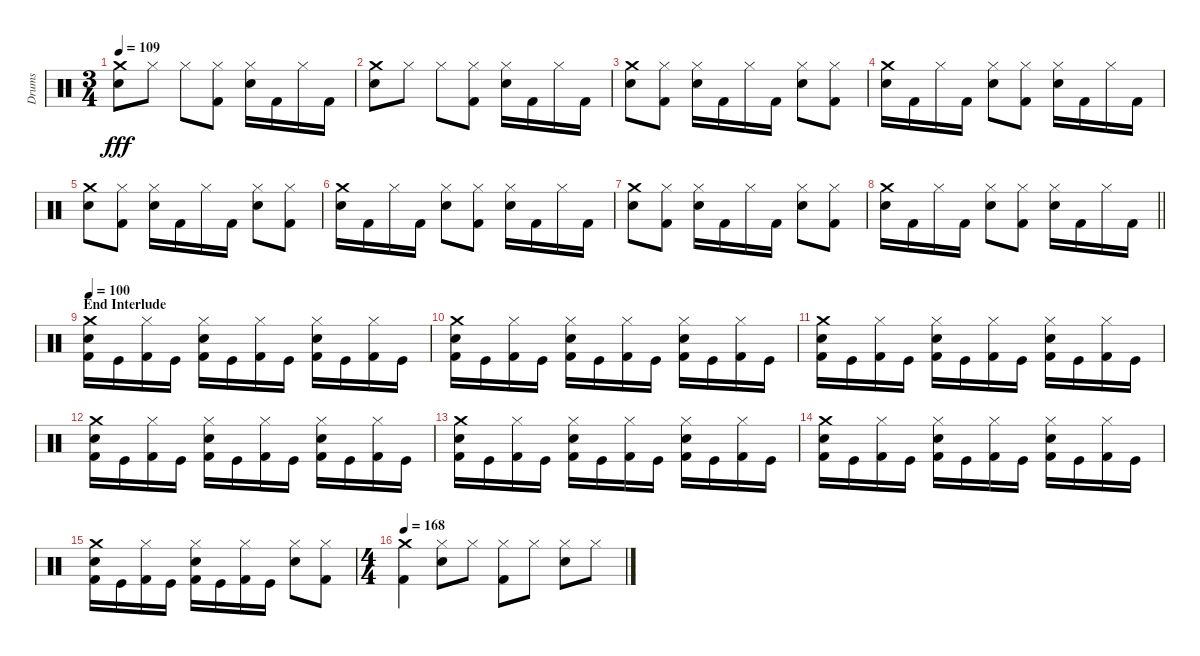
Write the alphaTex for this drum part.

\track ("Drums" "Drums") {instrument percussion}
\staff {score}
\articulation defaults
\ts (3 4)
\tempo 109
\clef neutral
\ks c
("Snare (hit) 2" "Crash medium (hit)").8{dy fff} "Hi-Hat (closed)".8 "Hi-Hat (closed)".8 ("Kick (hit) 2" "Hi-Hat (closed)").8 ("Snare (hit) 2" "Hi-Hat (closed)").16 "Kick (hit) 2".16 "Hi-Hat (closed)".16 "Kick (hit) 2".16 |
("Snare (hit) 2" "Crash medium (hit)").8 "Hi-Hat (closed)".8 "Hi-Hat (closed)".8 ("Kick (hit) 2" "Hi-Hat (closed)").8 ("Snare (hit) 2" "Hi-Hat (closed)").16 "Kick (hit) 2".16 "Hi-Hat (closed)".16 "Kick (hit) 2".16 |
("Snare (hit) 2" "Crash medium (hit)").8 ("Hi-Hat (closed)" "Kick (hit) 2").8 ("Snare (hit) 2" "Hi-Hat (closed)").16 "Kick (hit) 2".16 "Hi-Hat (closed)".16 "Kick (hit) 2".16 ("Snare (hit) 2" "Hi-Hat (closed)").8 ("Hi-Hat (closed)" "Kick (hit) 2").8 |
("Snare (hit) 2" "Crash medium (hit)").16 "Kick (hit) 2".16 "Hi-Hat (closed)".16 "Kick (hit) 2".16 ("Snare (hit) 2" "Hi-Hat (closed)").8 ("Hi-Hat (closed)" "Kick (hit) 2").8 ("Snare (hit) 2" "Hi-Hat (closed)").16 "Kick (hit) 2".16 "Hi-Hat (closed)".16 "Kick (hit) 2".16 |
("Snare (hit) 2" "Crash medium (hit)").8 ("Hi-Hat (closed)" "Kick (hit) 2").8 ("Snare (hit) 2" "Hi-Hat (closed)").16 "Kick (hit) 2".16 "Hi-Hat (closed)".16 "Kick (hit) 2".16 ("Snare (hit) 2" "Hi-Hat (closed)").8 ("Hi-Hat (closed)" "Kick (hit) 2").8 |
("Snare (hit) 2" "Crash medium (hit)").16 "Kick (hit) 2".16 "Hi-Hat (closed)".16 "Kick (hit) 2".16 ("Snare (hit) 2" "Hi-Hat (closed)").8 ("Hi-Hat (closed)" "Kick (hit) 2").8 ("Snare (hit) 2" "Hi-Hat (closed)").16 "Kick (hit) 2".16 "Hi-Hat (closed)".16 "Kick (hit) 2".16 |
("Snare (hit) 2" "Crash medium (hit)").8 ("Hi-Hat (closed)" "Kick (hit) 2").8 ("Snare (hit) 2" "Hi-Hat (closed)").16 "Kick (hit) 2".16 "Hi-Hat (closed)".16 "Kick (hit) 2".16 ("Snare (hit) 2" "Hi-Hat (closed)").8 ("Hi-Hat (closed)" "Kick (hit) 2").8 |
\barLineRight lightlight
("Snare (hit) 2" "Crash medium (hit)").16 "Kick (hit) 2".16 "Hi-Hat (closed)".16 "Kick (hit) 2".16 ("Snare (hit) 2" "Hi-Hat (closed)").8 ("Hi-Hat (closed)" "Kick (hit) 2").8 ("Snare (hit) 2" "Hi-Hat (closed)").16 "Kick (hit) 2".16 "Hi-Hat (closed)".16 "Kick (hit) 2".16 |
\section ("" "End Interlude")
\tempo 100
("Kick (hit) 2" "Snare (hit) 2" "Crash medium (hit)").16 "Kick (hit)".16 ("Kick (hit) 2" "Hi-Hat (closed)").16 "Kick (hit)".16 ("Kick (hit) 2" "Snare (hit) 2" "Hi-Hat (closed)").16 "Kick (hit)".16 ("Kick (hit) 2" "Hi-Hat (closed)").16 "Kick (hit)".16 ("Kick (hit) 2" "Snare (hit) 2" "Hi-Hat (closed)").16 "Kick (hit)".16 ("Kick (hit) 2" "Hi-Hat (closed)").16 "Kick (hit)".16 |
("Kick (hit) 2" "Snare (hit) 2" "Crash medium (hit)").16 "Kick (hit)".16 ("Kick (hit) 2" "Hi-Hat (closed)").16 "Kick (hit)".16 ("Kick (hit) 2" "Snare (hit) 2" "Hi-Hat (closed)").16 "Kick (hit)".16 ("Kick (hit) 2" "Hi-Hat (closed)").16 "Kick (hit)".16 ("Kick (hit) 2" "Snare (hit) 2" "Hi-Hat (closed)").16 "Kick (hit)".16 ("Kick (hit) 2" "Hi-Hat (closed)").16 "Kick (hit)".16 |
("Kick (hit) 2" "Snare (hit) 2" "Crash medium (hit)").16 "Kick (hit)".16 ("Kick (hit) 2" "Hi-Hat (closed)").16 "Kick (hit)".16 ("Kick (hit) 2" "Snare (hit) 2" "Hi-Hat (closed)").16 "Kick (hit)".16 ("Kick (hit) 2" "Hi-Hat (closed)").16 "Kick (hit)".16 ("Kick (hit) 2" "Snare (hit) 2" "Hi-Hat (closed)").16 "Kick (hit)".16 ("Kick (hit) 2" "Hi-Hat (closed)").16 "Kick (hit)".16 |
("Kick (hit) 2" "Snare (hit) 2" "Crash medium (hit)").16 "Kick (hit)".16 ("Kick (hit) 2" "Hi-Hat (closed)").16 "Kick (hit)".16 ("Kick (hit) 2" "Snare (hit) 2" "Hi-Hat (closed)").16 "Kick (hit)".16 ("Kick (hit) 2" "Hi-Hat (closed)").16 "Kick (hit)".16 ("Kick (hit) 2" "Snare (hit) 2" "Hi-Hat (closed)").16 "Kick (hit)".16 ("Kick (hit) 2" "Hi-Hat (closed)").16 "Kick (hit)".16 |
("Kick (hit) 2" "Snare (hit) 2" "Crash medium (hit)").16 "Kick (hit)".16 ("Kick (hit) 2" "Hi-Hat (closed)").16 "Kick (hit)".16 ("Kick (hit) 2" "Snare (hit) 2" "Hi-Hat (closed)").16 "Kick (hit)".16 ("Kick (hit) 2" "Hi-Hat (closed)").16 "Kick (hit)".16 ("Kick (hit) 2" "Snare (hit) 2" "Hi-Hat (closed)").16 "Kick (hit)".16 ("Kick (hit) 2" "Hi-Hat (closed)").16 "Kick (hit)".16 |
("Kick (hit) 2" "Snare (hit) 2" "Crash medium (hit)").16 "Kick (hit)".16 ("Kick (hit) 2" "Hi-Hat (closed)").16 "Kick (hit)".16 ("Kick (hit) 2" "Snare (hit) 2" "Hi-Hat (closed)").16 "Kick (hit)".16 ("Kick (hit) 2" "Hi-Hat (closed)").16 "Kick (hit)".16 ("Kick (hit) 2" "Snare (hit) 2" "Hi-Hat (closed)").16 "Kick (hit)".16 ("Kick (hit) 2" "Hi-Hat (closed)").16 "Kick (hit)".16 |
("Kick (hit) 2" "Snare (hit) 2" "Crash medium (hit)").16 "Kick (hit)".16 ("Kick (hit) 2" "Hi-Hat (closed)").16 "Kick (hit)".16 ("Kick (hit) 2" "Snare (hit) 2" "Hi-Hat (closed)").16 "Kick (hit)".16 ("Kick (hit) 2" "Hi-Hat (closed)").16 "Kick (hit)".16 ("Snare (hit) 2" "Hi-Hat (closed)").8 ("Kick (hit) 2" "Hi-Hat (closed)").8 |
\ts (4 4)
\tempo 168
("Crash medium (hit)" "Kick (hit) 2").4 ("Hi-Hat (closed)" "Snare (hit) 2").8 "Hi-Hat (closed)".8 ("Kick (hit) 2" "Hi-Hat (closed)").8 "Hi-Hat (closed)".8 ("Snare (hit) 2" "Hi-Hat (closed)").8 "Hi-Hat (closed)".8
